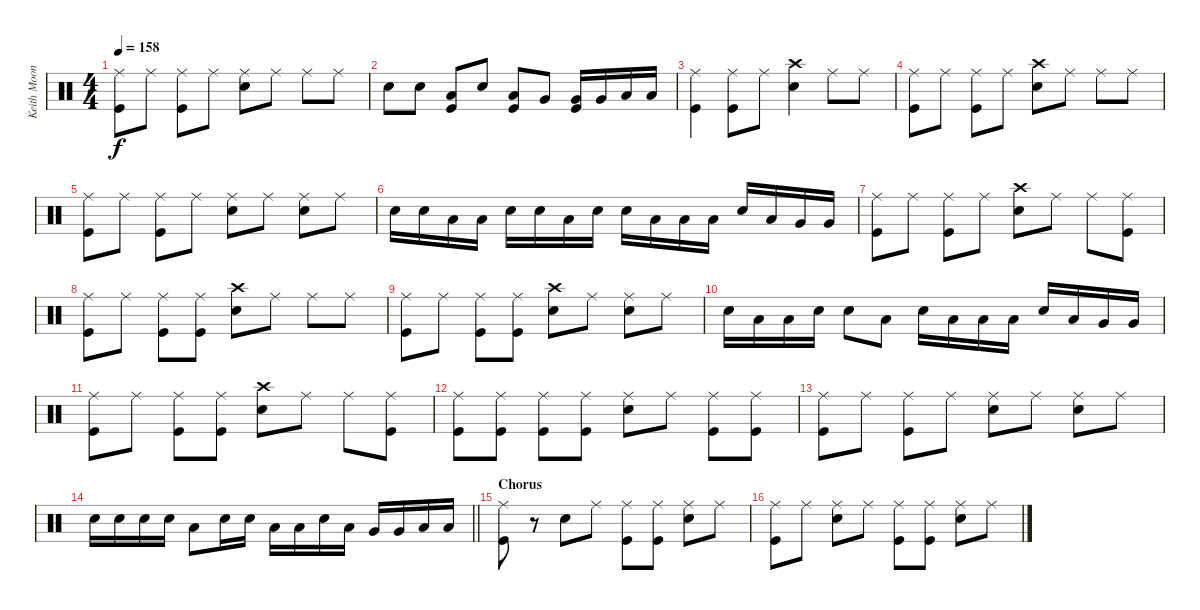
\track ("Keith Moon" "Keith Moon") {instrument percussion}
\staff {score}
\articulation defaults
\ts (4 4)
\tempo 158
\clef neutral
\ks c
("Ride (middle)" "Kick (hit)").8{dy f} "Ride (middle)".8 ("Ride (middle)" "Kick (hit)").8 "Ride (middle)".8 ("Ride (middle)" "Snare (hit) 2").8 "Ride (middle)".8 "Ride (middle)".8 "Ride (middle)".8 |
"Snare (hit) 2".8 "Snare (hit) 2".8 ("Low Tom (hit)" "Kick (hit)").8 "Snare (hit) 2".8 ("Low Tom (hit)" "Kick (hit)").8 "Very Low Tom (hit)".8 ("Very Low Tom (hit)" "Kick (hit)").16 "Very Low Tom (hit)".16 "Low Floor Tom (hit)".16 "Low Floor Tom (hit)".16 |
("Ride (middle)" "Kick (hit)").4 ("Ride (middle)" "Kick (hit)").8 "Ride (middle)".8 ("Crash high (hit)" "Snare (hit) 2").4 "Ride (middle)".8 "Ride (middle)".8 |
("Ride (middle)" "Kick (hit)").8 "Ride (middle)".8 ("Ride (middle)" "Kick (hit)").8 "Ride (middle)".8 ("Crash high (hit)" "Snare (hit) 2").8 "Ride (middle)".8 "Ride (middle)".8 "Ride (middle)".8 |
("Ride (middle)" "Kick (hit)").8 "Ride (middle)".8 ("Ride (middle)" "Kick (hit)").8 "Ride (middle)".8 ("Ride (middle)" "Snare (hit) 2").8 "Ride (middle)".8 ("Ride (middle)" "Snare (hit) 2").8 "Ride (middle)".8 |
"Snare (hit) 2".16 "Snare (hit) 2".16 "Low Tom (hit)".16 "Low Tom (hit)".16 "Snare (hit) 2".16 "Snare (hit) 2".16 "Low Tom (hit)".16 "Snare (hit) 2".16 "Snare (hit) 2".16 "Low Tom (hit)".16 "Low Tom (hit)".16 "Low Tom (hit)".16 "Snare (hit) 2".16 "Low Tom (hit)".16 "Very Low Tom (hit)".16 "Very Low Tom (hit)".16 |
("Ride (middle)" "Kick (hit)").8 "Ride (middle)".8 ("Ride (middle)" "Kick (hit)").8 "Ride (middle)".8 ("Crash high (hit)" "Snare (hit) 2").8 "Ride (middle)".8 "Ride (middle)".8 ("Ride (middle)" "Kick (hit)").8 |
("Ride (middle)" "Kick (hit)").8 "Ride (middle)".8 ("Ride (middle)" "Kick (hit)").8 ("Ride (middle)" "Kick (hit)").8 ("Crash high (hit)" "Snare (hit) 2").8 "Ride (middle)".8 "Ride (middle)".8 "Ride (middle)".8 |
("Ride (middle)" "Kick (hit)").8 "Ride (middle)".8 ("Ride (middle)" "Kick (hit)").8 ("Ride (middle)" "Kick (hit)").8 ("Crash high (hit)" "Snare (hit) 2").8 "Ride (middle)".8 ("Ride (middle)" "Snare (hit) 2").8 "Ride (middle)".8 |
"Snare (hit) 2".16 "Low Tom (hit)".16 "Low Tom (hit)".16 "Snare (hit) 2".16 "Snare (hit) 2".8 "Low Tom (hit)".8 "Snare (hit) 2".16 "Low Tom (hit)".16 "Low Tom (hit)".16 "Low Tom (hit)".16 "Snare (hit) 2".16 "Low Tom (hit)".16 "Very Low Tom (hit)".16 "Very Low Tom (hit)".16 |
("Ride (middle)" "Kick (hit)").8 "Ride (middle)".8 ("Ride (middle)" "Kick (hit)").8 ("Ride (middle)" "Kick (hit)").8 ("Crash high (hit)" "Snare (hit) 2").8 "Ride (middle)".8 "Ride (middle)".8 ("Ride (middle)" "Kick (hit)").8 |
("Ride (middle)" "Kick (hit)").8 ("Ride (middle)" "Kick (hit)").8 ("Ride (middle)" "Kick (hit)").8 ("Ride (middle)" "Kick (hit)").8 ("Ride (middle)" "Snare (hit) 2").8 "Ride (middle)".8 ("Ride (middle)" "Kick (hit)").8 ("Ride (middle)" "Kick (hit)").8 |
("Ride (middle)" "Kick (hit)").8 "Ride (middle)".8 ("Ride (middle)" "Kick (hit)").8 "Ride (middle)".8 ("Ride (middle)" "Snare (hit) 2").8 "Ride (middle)".8 ("Ride (middle)" "Snare (hit) 2").8 "Ride (middle)".8 |
\barLineRight lightlight "Snare (hit) 2".16 "Snare (hit) 2".16 "Snare (hit) 2".16 "Snare (hit) 2".16 "Low Tom (hit)".8 "Snare (hit) 2".16 "Snare (hit) 2".16 "Low Tom (hit)".16 "Low Tom (hit)".16 "Snare (hit) 2".16 "Low Tom (hit)".16 "Very Low Tom (hit)".16 "Very Low Tom (hit)".16 "Low Floor Tom (hit)".16 "Low Floor Tom (hit)".16
|
\section ("" "Chorus")
("Ride (middle)" "Kick (hit)").8 r.8 "Snare (hit) 2".8 "Ride (middle)".8 ("Ride (middle)" "Kick (hit)").8 ("Ride (middle)" "Kick (hit)").8 ("Ride (middle)" "Snare (hit) 2").8 "Ride (middle)".8 |
("Ride (middle)" "Kick (hit)").8 "Ride (middle)".8 ("Ride (middle)" "Snare (hit) 2").8 "Ride (middle)".8 ("Ride (middle)" "Kick (hit)").8 ("Ride (middle)" "Kick (hit)").8 ("Ride (middle)" "Snare (hit) 2").8 "Ride (middle)".8
